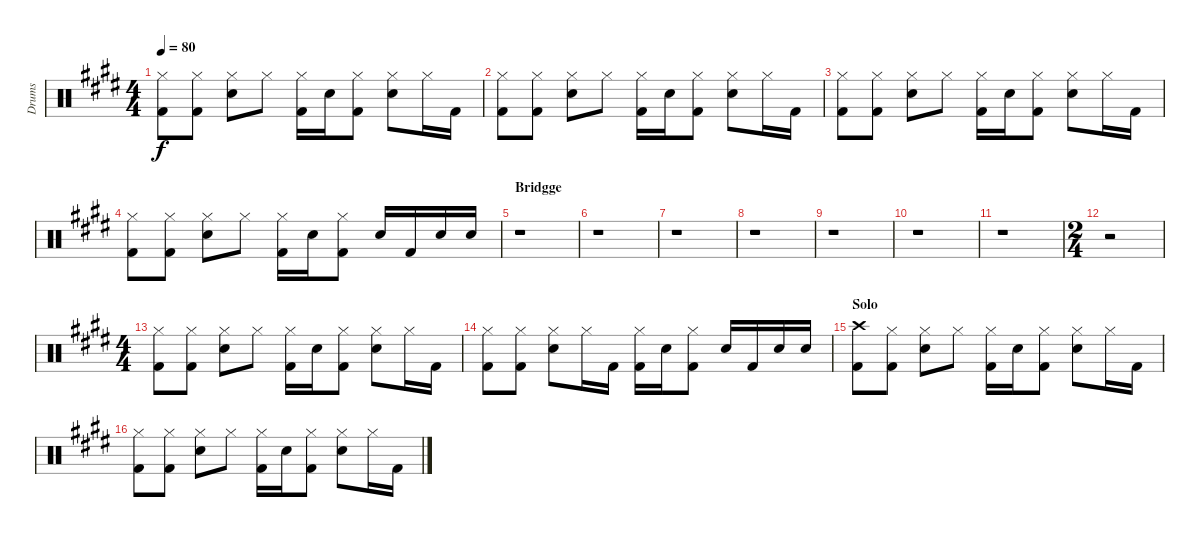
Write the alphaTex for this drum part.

\track ("Drums" "Drums") {instrument percussion}
\staff {score}
\articulation defaults
\ts (4 4)
\tempo 80
\clef neutral
\ks c#minor
("Kick (hit) 2" "Hi-Hat (closed)").8{dy f} ("Kick (hit) 2" "Hi-Hat (closed)").8 ("Snare (hit) 2" "Hi-Hat (closed)").8 "Hi-Hat (closed)".8 ("Kick (hit) 2" "Hi-Hat (closed)").16 "Snare (hit) 2".16 ("Kick (hit) 2" "Hi-Hat (closed)").8 ("Snare (hit) 2" "Hi-Hat (closed)").8 "Hi-Hat (closed)".16 "Kick (hit) 2".16 |
("Kick (hit) 2" "Hi-Hat (closed)").8 ("Kick (hit) 2" "Hi-Hat (closed)").8 ("Snare (hit) 2" "Hi-Hat (closed)").8 "Hi-Hat (closed)".8 ("Kick (hit) 2" "Hi-Hat (closed)").16 "Snare (hit) 2".16 ("Kick (hit) 2" "Hi-Hat (closed)").8 ("Snare (hit) 2" "Hi-Hat (closed)").8 "Hi-Hat (closed)".16 "Kick (hit) 2".16 |
("Kick (hit) 2" "Hi-Hat (closed)").8 ("Kick (hit) 2" "Hi-Hat (closed)").8 ("Snare (hit) 2" "Hi-Hat (closed)").8 "Hi-Hat (closed)".8 ("Kick (hit) 2" "Hi-Hat (closed)").16 "Snare (hit) 2".16 ("Kick (hit) 2" "Hi-Hat (closed)").8 ("Snare (hit) 2" "Hi-Hat (closed)").8 "Hi-Hat (closed)".16 "Kick (hit) 2".16 |
("Kick (hit) 2" "Hi-Hat (closed)").8 ("Kick (hit) 2" "Hi-Hat (closed)").8 ("Snare (hit) 2" "Hi-Hat (closed)").8 "Hi-Hat (closed)".8 ("Kick (hit) 2" "Hi-Hat (closed)").16 "Snare (hit) 2".16 ("Kick (hit) 2" "Hi-Hat (closed)").8 "Snare (hit) 2".16 "Kick (hit) 2".16 "Snare (hit) 2".16 "Snare (hit) 2".16 |
\section ("" "Bridgge")
r.1 |
r.1 |
r.1 |
r.1 |
r.1 |
r.1 |
r.1 |
\ts (2 4)
r.2 |
\ts (4 4)
("Kick (hit) 2" "Hi-Hat (closed)").8 ("Kick (hit) 2" "Hi-Hat (closed)").8 ("Snare (hit) 2" "Hi-Hat (closed)").8 "Hi-Hat (closed)".8 ("Kick (hit) 2" "Hi-Hat (closed)").16 "Snare (hit) 2".16 ("Kick (hit) 2" "Hi-Hat (closed)").8 ("Snare (hit) 2" "Hi-Hat (closed)").8 "Hi-Hat (closed)".16 "Kick (hit) 2".16 |
("Kick (hit) 2" "Hi-Hat (closed)").8 ("Kick (hit) 2" "Hi-Hat (closed)").8 ("Snare (hit) 2" "Hi-Hat (closed)").8 "Hi-Hat (closed)".16 "Kick (hit) 2".16 ("Kick (hit) 2" "Hi-Hat (closed)").16 "Snare (hit) 2".16 ("Kick (hit) 2" "Hi-Hat (closed)").8 "Snare (hit) 2".16 "Kick (hit) 2".16 "Snare (hit) 2".16 "Snare (hit) 2".16 |
\section ("" "Solo")
("Kick (hit) 2" "Crash high (hit)").8 ("Kick (hit) 2" "Hi-Hat (closed)").8 ("Snare (hit) 2" "Hi-Hat (closed)").8 "Hi-Hat (closed)".8 ("Kick (hit) 2" "Hi-Hat (closed)").16 "Snare (hit) 2".16 ("Kick (hit) 2" "Hi-Hat (closed)").8 ("Snare (hit) 2" "Hi-Hat (closed)").8 "Hi-Hat (closed)".16 "Kick (hit) 2".16 |
("Kick (hit) 2" "Hi-Hat (closed)").8 ("Kick (hit) 2" "Hi-Hat (closed)").8 ("Snare (hit) 2" "Hi-Hat (closed)").8 "Hi-Hat (closed)".8 ("Kick (hit) 2" "Hi-Hat (closed)").16 "Snare (hit) 2".16 ("Kick (hit) 2" "Hi-Hat (closed)").8 ("Snare (hit) 2" "Hi-Hat (closed)").8 "Hi-Hat (closed)".16 "Kick (hit) 2".16
